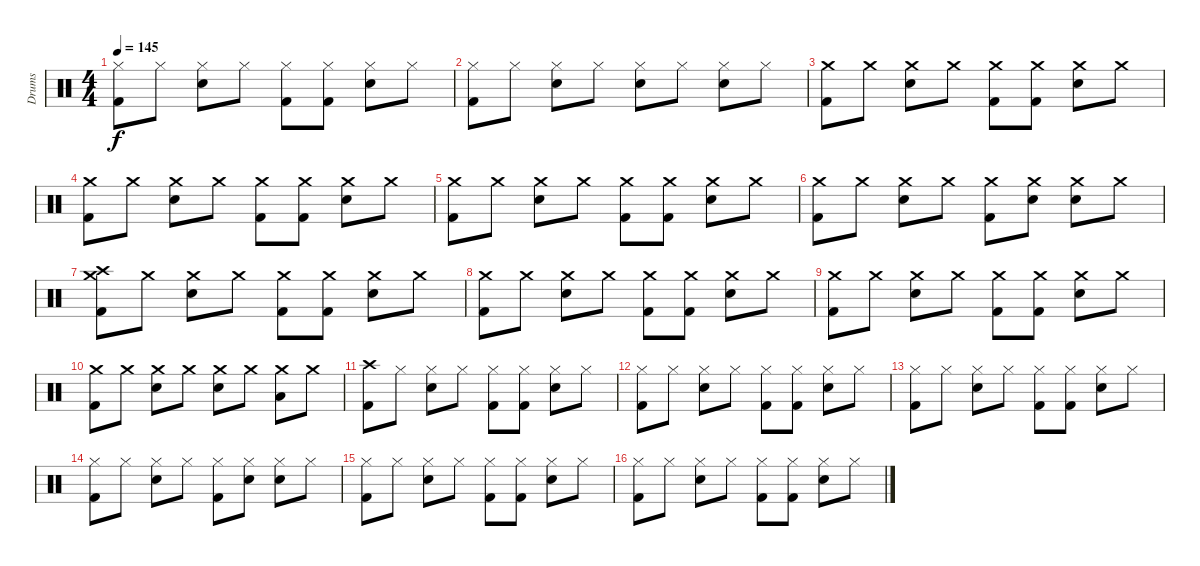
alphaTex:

\track ("Drums" "Drums") {instrument percussion}
\staff {score}
\articulation defaults
\ts (4 4)
\tempo 145
\clef neutral
\ks c
("Hi-Hat (closed)" "Kick (hit) 2").8{dy f} "Hi-Hat (closed)".8 ("Hi-Hat (closed)" "Snare (hit) 2").8 "Hi-Hat (closed)".8 ("Hi-Hat (closed)" "Kick (hit) 2").8 ("Hi-Hat (closed)" "Kick (hit) 2").8 ("Hi-Hat (closed)" "Snare (hit) 2").8 "Hi-Hat (closed)".8 |
("Hi-Hat (closed)" "Kick (hit) 2").8 "Hi-Hat (closed)".8 ("Hi-Hat (closed)" "Snare (hit) 2").8 "Hi-Hat (closed)".8 ("Hi-Hat (closed)" "Snare (hit) 2").8 "Hi-Hat (closed)".8 ("Hi-Hat (closed)" "Snare (hit) 2").8 "Hi-Hat (closed)".8 |
("Crash medium (hit)" "Kick (hit) 2").8 "Crash medium (hit)".8 ("Crash medium (hit)" "Snare (hit) 2").8 "Crash medium (hit)".8 ("Crash medium (hit)" "Kick (hit) 2").8 ("Crash medium (hit)" "Kick (hit) 2").8 ("Crash medium (hit)" "Snare (hit) 2").8 "Crash medium (hit)".8 |
("Crash medium (hit)" "Kick (hit) 2").8 "Crash medium (hit)".8 ("Crash medium (hit)" "Snare (hit) 2").8 "Crash medium (hit)".8 ("Crash medium (hit)" "Kick (hit) 2").8 ("Crash medium (hit)" "Kick (hit) 2").8 ("Crash medium (hit)" "Snare (hit) 2").8 "Crash medium (hit)".8 |
("Crash medium (hit)" "Kick (hit) 2").8 "Crash medium (hit)".8 ("Crash medium (hit)" "Snare (hit) 2").8 "Crash medium (hit)".8 ("Crash medium (hit)" "Kick (hit) 2").8 ("Crash medium (hit)" "Kick (hit) 2").8 ("Crash medium (hit)" "Snare (hit) 2").8 "Crash medium (hit)".8 |
("Crash medium (hit)" "Kick (hit) 2").8 "Crash medium (hit)".8 ("Crash medium (hit)" "Snare (hit) 2").8 "Crash medium (hit)".8 ("Crash medium (hit)" "Kick (hit) 2").8 ("Crash medium (hit)" "Snare (hit) 2").8 ("Crash medium (hit)" "Snare (hit) 2").8 "Crash medium (hit)".8 |
("Crash medium (hit)" "Crash high (hit)" "Kick (hit) 2").8 "Crash medium (hit)".8 ("Crash medium (hit)" "Snare (hit) 2").8 "Crash medium (hit)".8 ("Crash medium (hit)" "Kick (hit) 2").8 ("Crash medium (hit)" "Kick (hit) 2").8 ("Crash medium (hit)" "Snare (hit) 2").8 "Crash medium (hit)".8 |
("Crash medium (hit)" "Kick (hit) 2").8 "Crash medium (hit)".8 ("Crash medium (hit)" "Snare (hit) 2").8 "Crash medium (hit)".8 ("Crash medium (hit)" "Kick (hit) 2").8 ("Crash medium (hit)" "Kick (hit) 2").8 ("Crash medium (hit)" "Snare (hit) 2").8 "Crash medium (hit)".8 |
("Crash medium (hit)" "Kick (hit) 2").8 "Crash medium (hit)".8 ("Crash medium (hit)" "Snare (hit) 2").8 "Crash medium (hit)".8 ("Crash medium (hit)" "Kick (hit) 2").8 ("Crash medium (hit)" "Kick (hit) 2").8 ("Crash medium (hit)" "Snare (hit) 2").8 "Crash medium (hit)".8 |
("Crash medium (hit)" "Kick (hit) 2").8 "Crash medium (hit)".8 ("Crash medium (hit)" "Snare (hit) 2").8 "Crash medium (hit)".8 ("Crash medium (hit)" "Snare (hit) 2").8 "Crash medium (hit)".8 ("Crash medium (hit)" "Low Tom (hit)").8 "Crash medium (hit)".8 |
("Crash high (hit)" "Kick (hit) 2").8 "Hi-Hat (closed)".8 ("Hi-Hat (closed)" "Snare (hit) 2").8 "Hi-Hat (closed)".8 ("Hi-Hat (closed)" "Kick (hit) 2").8 ("Hi-Hat (closed)" "Kick (hit) 2").8 ("Hi-Hat (closed)" "Snare (hit) 2").8 "Hi-Hat (closed)".8 |
("Hi-Hat (closed)" "Kick (hit) 2").8 "Hi-Hat (closed)".8 ("Hi-Hat (closed)" "Snare (hit) 2").8 "Hi-Hat (closed)".8 ("Hi-Hat (closed)" "Kick (hit) 2").8 ("Hi-Hat (closed)" "Kick (hit) 2").8 ("Hi-Hat (closed)" "Snare (hit) 2").8 "Hi-Hat (closed)".8 |
("Hi-Hat (closed)" "Kick (hit) 2").8 "Hi-Hat (closed)".8 ("Hi-Hat (closed)" "Snare (hit) 2").8 "Hi-Hat (closed)".8 ("Hi-Hat (closed)" "Kick (hit) 2").8 ("Hi-Hat (closed)" "Kick (hit) 2").8 ("Hi-Hat (closed)" "Snare (hit) 2").8 "Hi-Hat (closed)".8 |
("Hi-Hat (closed)" "Kick (hit) 2").8 "Hi-Hat (closed)".8 ("Hi-Hat (closed)" "Snare (hit) 2").8 "Hi-Hat (closed)".8 ("Hi-Hat (closed)" "Kick (hit) 2").8 ("Hi-Hat (closed)" "Snare (hit) 2").8 ("Hi-Hat (closed)" "Snare (hit) 2").8 "Hi-Hat (closed)".8 |
("Hi-Hat (closed)" "Kick (hit) 2").8 "Hi-Hat (closed)".8 ("Hi-Hat (closed)" "Snare (hit) 2").8 "Hi-Hat (closed)".8 ("Hi-Hat (closed)" "Kick (hit) 2").8 ("Hi-Hat (closed)" "Kick (hit) 2").8 ("Hi-Hat (closed)" "Snare (hit) 2").8 "Hi-Hat (closed)".8 |
("Hi-Hat (closed)" "Kick (hit) 2").8 "Hi-Hat (closed)".8 ("Hi-Hat (closed)" "Snare (hit) 2").8 "Hi-Hat (closed)".8 ("Hi-Hat (closed)" "Kick (hit) 2").8 ("Hi-Hat (closed)" "Kick (hit) 2").8 ("Hi-Hat (closed)" "Snare (hit) 2").8 "Hi-Hat (closed)".8
